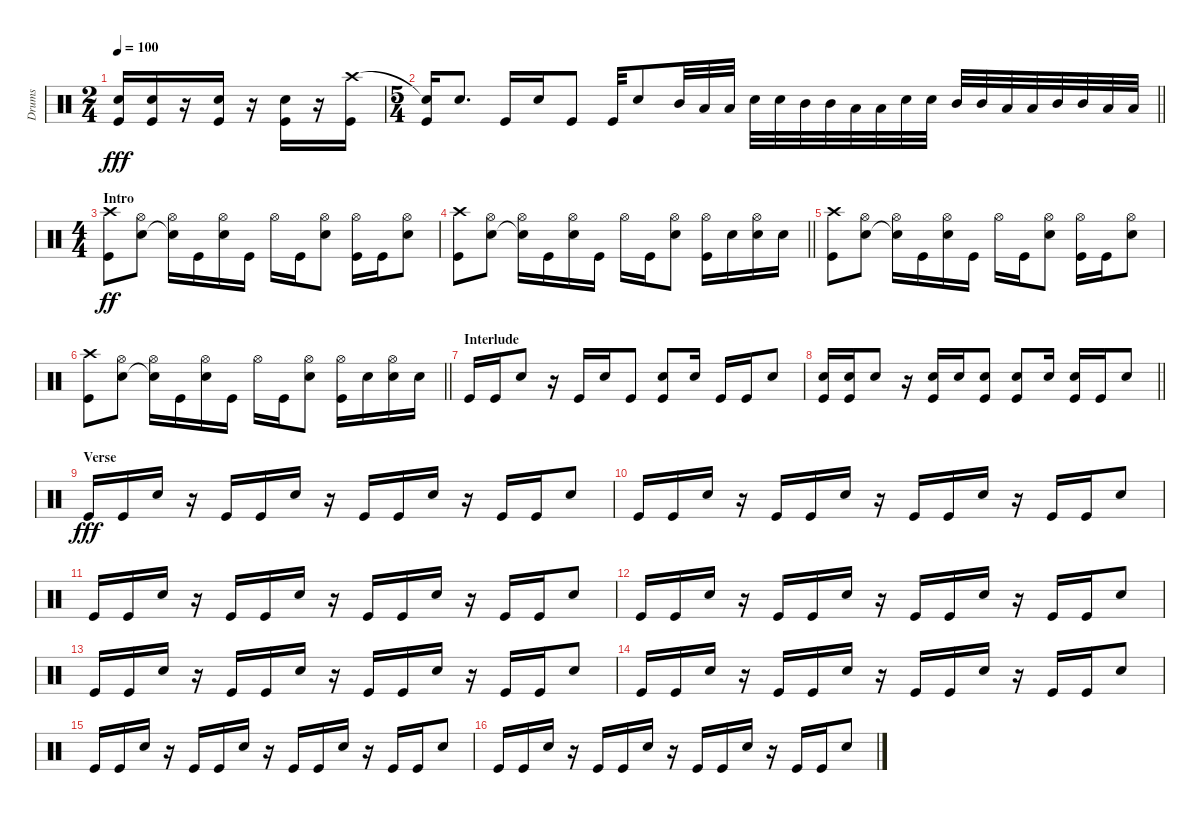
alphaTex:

\track ("Drums" "Drums") {instrument percussion}
\staff {score}
\articulation defaults
\ts (2 4)
\tempo 100
\clef neutral
\ks c
("Snare (hit) 2" "Kick (hit)").16{dy fff} ("Snare (hit) 2" "Kick (hit)").16 r.16 ("Snare (hit) 2" "Kick (hit)").16 r.16 ("Snare (hit) 2" "Kick (hit)").16 r.16 ("Crash high (hit)" "Kick (hit)").16 |
\ts (5 4)
\barLineRight lightlight
("Snare (hit)"{t} "Kick (hit)").16 "Snare (hit) 2".8{d} "Kick (hit)".16 "Snare (hit) 2".16 "Kick (hit)".8 "Kick (hit)".32 "Snare (hit) 2".8 "Mid Tom (hit)".32 "Low Tom (hit)".32 "Low Tom (hit)".32 "Snare (hit) 2".32 "Snare (hit) 2".32 "Mid Tom (hit)".32 "Mid Tom (hit)".32 "Low Tom (hit)".32 "Low Tom (hit)".32 "Snare (hit) 2".32 "Snare (hit) 2".32 "Mid Tom (hit)".32 "Mid Tom (hit)".32 "Low Tom (hit)".32 "Low Tom (hit)".32 "Mid Tom (hit)".32 "Mid Tom (hit)".32 "Low Tom (hit)".32 "Low Tom (hit)".32 |
\ts (4 4)
\section ("" "Intro")
("Crash high (hit)" "Kick (hit)").8{dy ff} ("Hi-Hat (open)" "Snare (hit) 2").8 ("Hi-Hat (open)" "Snare (hit)"{t}).16 "Kick (hit)".16 ("Hi-Hat (open)" "Snare (hit) 2").16 "Kick (hit)".16 "Hi-Hat (open)".16 "Kick (hit)".16 ("Hi-Hat (open)" "Snare (hit) 2").8 ("Hi-Hat (open)" "Kick (hit)").16 "Kick (hit)".16 ("Hi-Hat (open)" "Snare (hit) 2").8 |
\barLineRight lightlight
("Crash high (hit)" "Kick (hit)").8 ("Hi-Hat (open)" "Snare (hit) 2").8 ("Hi-Hat (open)" "Snare (hit)"{t}).16 "Kick (hit)".16 ("Hi-Hat (open)" "Snare (hit) 2").16 "Kick (hit)".16 "Hi-Hat (open)".16 "Kick (hit)".16 ("Hi-Hat (open)" "Snare (hit) 2").8 ("Hi-Hat (open)" "Kick (hit)").16 "Snare (hit) 2".16 ("Hi-Hat (open)" "Snare (hit) 2").16 "Snare (hit) 2".16 |
("Crash high (hit)" "Kick (hit)").8 ("Hi-Hat (open)" "Snare (hit) 2").8 ("Hi-Hat (open)" "Snare (hit)"{t}).16 "Kick (hit)".16 ("Hi-Hat (open)" "Snare (hit) 2").16 "Kick (hit)".16 "Hi-Hat (open)".16 "Kick (hit)".16 ("Hi-Hat (open)" "Snare (hit) 2").8 ("Hi-Hat (open)" "Kick (hit)").16 "Kick (hit)".16 ("Hi-Hat (open)" "Snare (hit) 2").8 |
\barLineRight lightlight
("Crash high (hit)" "Kick (hit)").8 ("Hi-Hat (open)" "Snare (hit) 2").8 ("Hi-Hat (open)" "Snare (hit)"{t}).16 "Kick (hit)".16 ("Hi-Hat (open)" "Snare (hit) 2").16 "Kick (hit)".16 "Hi-Hat (open)".16 "Kick (hit)".16 ("Hi-Hat (open)" "Snare (hit) 2").8 ("Hi-Hat (open)" "Kick (hit)").16 "Snare (hit) 2".16 ("Hi-Hat (open)" "Snare (hit) 2").16 "Snare (hit) 2".16 |
\section ("" "Interlude")
"Kick (hit)".16 "Kick (hit)".16 "Snare (hit) 2".8 r.16 "Kick (hit)".16 "Snare (hit) 2".16 "Kick (hit)".8 ("Snare (hit) 2" "Kick (hit)").8 "Snare (hit) 2".16 "Kick (hit)".16 "Kick (hit)".16 "Snare (hit) 2".8 |
\barLineRight lightlight
("Snare (hit) 2" "Kick (hit)").16 ("Snare (hit) 2" "Kick (hit)").16 "Snare (hit) 2".8 r.16 ("Snare (hit) 2" "Kick (hit)").16 "Snare (hit) 2".16 ("Snare (hit) 2" "Kick (hit)").8 ("Snare (hit) 2" "Kick (hit)").8 "Snare (hit) 2".16 ("Snare (hit) 2" "Kick (hit)").16 "Kick (hit)".16 "Snare (hit) 2".8 |
\section ("" "Verse")
"Kick (hit)".16{dy fff} "Kick (hit)".16 "Snare (hit) 2".16 r.16 "Kick (hit)".16 "Kick (hit)".16 "Snare (hit) 2".16 r.16 "Kick (hit)".16 "Kick (hit)".16 "Snare (hit) 2".16 r.16 "Kick (hit)".16 "Kick (hit)".16 "Snare (hit) 2".8 |
"Kick (hit)".16 "Kick (hit)".16 "Snare (hit) 2".16 r.16 "Kick (hit)".16 "Kick (hit)".16 "Snare (hit) 2".16 r.16 "Kick (hit)".16 "Kick (hit)".16 "Snare (hit) 2".16 r.16 "Kick (hit)".16 "Kick (hit)".16 "Snare (hit) 2".8 |
"Kick (hit)".16 "Kick (hit)".16 "Snare (hit) 2".16 r.16 "Kick (hit)".16 "Kick (hit)".16 "Snare (hit) 2".16 r.16 "Kick (hit)".16 "Kick (hit)".16 "Snare (hit) 2".16 r.16 "Kick (hit)".16 "Kick (hit)".16 "Snare (hit) 2".8 |
"Kick (hit)".16 "Kick (hit)".16 "Snare (hit) 2".16 r.16 "Kick (hit)".16 "Kick (hit)".16 "Snare (hit) 2".16 r.16 "Kick (hit)".16 "Kick (hit)".16 "Snare (hit) 2".16 r.16 "Kick (hit)".16 "Kick (hit)".16 "Snare (hit) 2".8 |
"Kick (hit)".16 "Kick (hit)".16 "Snare (hit) 2".16 r.16 "Kick (hit)".16 "Kick (hit)".16 "Snare (hit) 2".16 r.16 "Kick (hit)".16 "Kick (hit)".16 "Snare (hit) 2".16 r.16 "Kick (hit)".16 "Kick (hit)".16 "Snare (hit) 2".8 |
"Kick (hit)".16 "Kick (hit)".16 "Snare (hit) 2".16 r.16 "Kick (hit)".16 "Kick (hit)".16 "Snare (hit) 2".16 r.16 "Kick (hit)".16 "Kick (hit)".16 "Snare (hit) 2".16 r.16 "Kick (hit)".16 "Kick (hit)".16 "Snare (hit) 2".8 |
"Kick (hit)".16 "Kick (hit)".16 "Snare (hit) 2".16 r.16 "Kick (hit)".16 "Kick (hit)".16 "Snare (hit) 2".16 r.16 "Kick (hit)".16 "Kick (hit)".16 "Snare (hit) 2".16 r.16 "Kick (hit)".16 "Kick (hit)".16 "Snare (hit) 2".8 |
"Kick (hit)".16 "Kick (hit)".16 "Snare (hit) 2".16 r.16 "Kick (hit)".16 "Kick (hit)".16 "Snare (hit) 2".16 r.16 "Kick (hit)".16 "Kick (hit)".16 "Snare (hit) 2".16 r.16 "Kick (hit)".16 "Kick (hit)".16 "Snare (hit) 2".8
